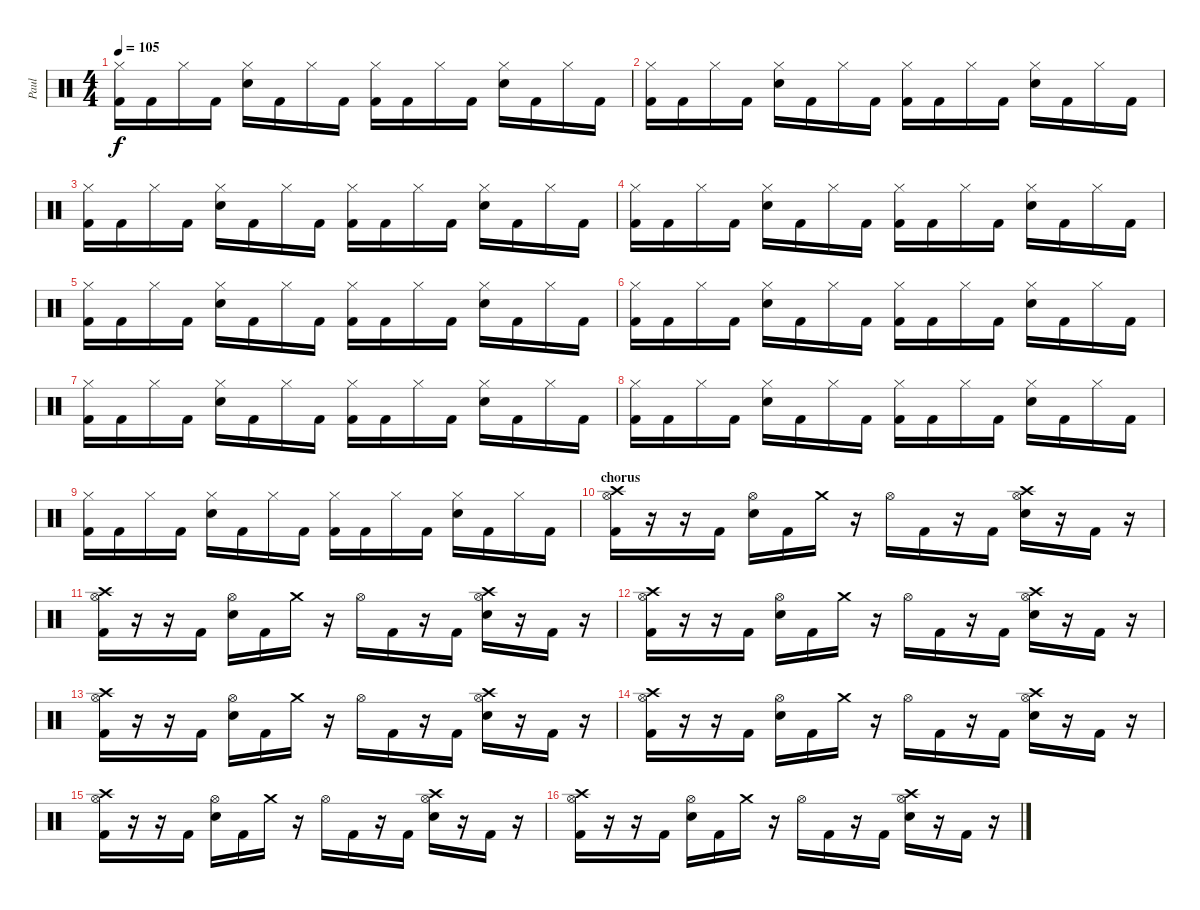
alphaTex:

\track ("Paul" "Paul") {instrument percussion}
\staff {score}
\articulation defaults
\ts (4 4)
\tempo 105
\clef neutral
\ks c
("Hi-Hat (closed)" "Kick (hit) 2").16{dy f} "Kick (hit) 2".16 "Hi-Hat (closed)".16 "Kick (hit) 2".16 ("Hi-Hat (closed)" "Snare (hit) 2").16 "Kick (hit) 2".16 "Hi-Hat (closed)".16 "Kick (hit) 2".16 ("Hi-Hat (closed)" "Kick (hit) 2").16 "Kick (hit) 2".16 "Hi-Hat (closed)".16 "Kick (hit) 2".16 ("Hi-Hat (closed)" "Snare (hit) 2").16 "Kick (hit) 2".16 "Hi-Hat (closed)".16 "Kick (hit) 2".16 |
("Hi-Hat (closed)" "Kick (hit) 2").16 "Kick (hit) 2".16 "Hi-Hat (closed)".16 "Kick (hit) 2".16 ("Hi-Hat (closed)" "Snare (hit) 2").16 "Kick (hit) 2".16 "Hi-Hat (closed)".16 "Kick (hit) 2".16 ("Hi-Hat (closed)" "Kick (hit) 2").16 "Kick (hit) 2".16 "Hi-Hat (closed)".16 "Kick (hit) 2".16 ("Hi-Hat (closed)" "Snare (hit) 2").16 "Kick (hit) 2".16 "Hi-Hat (closed)".16 "Kick (hit) 2".16 |
("Hi-Hat (closed)" "Kick (hit) 2").16 "Kick (hit) 2".16 "Hi-Hat (closed)".16 "Kick (hit) 2".16 ("Hi-Hat (closed)" "Snare (hit) 2").16 "Kick (hit) 2".16 "Hi-Hat (closed)".16 "Kick (hit) 2".16 ("Hi-Hat (closed)" "Kick (hit) 2").16 "Kick (hit) 2".16 "Hi-Hat (closed)".16 "Kick (hit) 2".16 ("Hi-Hat (closed)" "Snare (hit) 2").16 "Kick (hit) 2".16 "Hi-Hat (closed)".16 "Kick (hit) 2".16 |
("Hi-Hat (closed)" "Kick (hit) 2").16 "Kick (hit) 2".16 "Hi-Hat (closed)".16 "Kick (hit) 2".16 ("Hi-Hat (closed)" "Snare (hit) 2").16 "Kick (hit) 2".16 "Hi-Hat (closed)".16 "Kick (hit) 2".16 ("Hi-Hat (closed)" "Kick (hit) 2").16 "Kick (hit) 2".16 "Hi-Hat (closed)".16 "Kick (hit) 2".16 ("Hi-Hat (closed)" "Snare (hit) 2").16 "Kick (hit) 2".16 "Hi-Hat (closed)".16 "Kick (hit) 2".16 |
("Hi-Hat (closed)" "Kick (hit) 2").16 "Kick (hit) 2".16 "Hi-Hat (closed)".16 "Kick (hit) 2".16 ("Hi-Hat (closed)" "Snare (hit) 2").16 "Kick (hit) 2".16 "Hi-Hat (closed)".16 "Kick (hit) 2".16 ("Hi-Hat (closed)" "Kick (hit) 2").16 "Kick (hit) 2".16 "Hi-Hat (closed)".16 "Kick (hit) 2".16 ("Hi-Hat (closed)" "Snare (hit) 2").16 "Kick (hit) 2".16 "Hi-Hat (closed)".16 "Kick (hit) 2".16 |
("Hi-Hat (closed)" "Kick (hit) 2").16 "Kick (hit) 2".16 "Hi-Hat (closed)".16 "Kick (hit) 2".16 ("Hi-Hat (closed)" "Snare (hit) 2").16 "Kick (hit) 2".16 "Hi-Hat (closed)".16 "Kick (hit) 2".16 ("Hi-Hat (closed)" "Kick (hit) 2").16 "Kick (hit) 2".16 "Hi-Hat (closed)".16 "Kick (hit) 2".16 ("Hi-Hat (closed)" "Snare (hit) 2").16 "Kick (hit) 2".16 "Hi-Hat (closed)".16 "Kick (hit) 2".16 |
("Hi-Hat (closed)" "Kick (hit) 2").16 "Kick (hit) 2".16 "Hi-Hat (closed)".16 "Kick (hit) 2".16 ("Hi-Hat (closed)" "Snare (hit) 2").16 "Kick (hit) 2".16 "Hi-Hat (closed)".16 "Kick (hit) 2".16 ("Hi-Hat (closed)" "Kick (hit) 2").16 "Kick (hit) 2".16 "Hi-Hat (closed)".16 "Kick (hit) 2".16 ("Hi-Hat (closed)" "Snare (hit) 2").16 "Kick (hit) 2".16 "Hi-Hat (closed)".16 "Kick (hit) 2".16 |
("Hi-Hat (closed)" "Kick (hit) 2").16 "Kick (hit) 2".16 "Hi-Hat (closed)".16 "Kick (hit) 2".16 ("Hi-Hat (closed)" "Snare (hit) 2").16 "Kick (hit) 2".16 "Hi-Hat (closed)".16 "Kick (hit) 2".16 ("Hi-Hat (closed)" "Kick (hit) 2").16 "Kick (hit) 2".16 "Hi-Hat (closed)".16 "Kick (hit) 2".16 ("Hi-Hat (closed)" "Snare (hit) 2").16 "Kick (hit) 2".16 "Hi-Hat (closed)".16 "Kick (hit) 2".16 |
("Hi-Hat (closed)" "Kick (hit) 2").16 "Kick (hit) 2".16 "Hi-Hat (closed)".16 "Kick (hit) 2".16 ("Hi-Hat (closed)" "Snare (hit) 2").16 "Kick (hit) 2".16 "Hi-Hat (closed)".16 "Kick (hit) 2".16 ("Hi-Hat (closed)" "Kick (hit) 2").16 "Kick (hit) 2".16 "Hi-Hat (closed)".16 "Kick (hit) 2".16 ("Hi-Hat (closed)" "Snare (hit) 2").16 "Kick (hit) 2".16 "Hi-Hat (closed)".16 "Kick (hit) 2".16 |
\section ("" "chorus")
("Crash high (hit)" "Hi-Hat (open)" "Kick (hit) 2").16 r.16 r.16 "Kick (hit) 2".16 ("Hi-Hat (open)" "Snare (hit) 2").16 "Kick (hit) 2".16 "Crash medium (hit)".16 r.16 "Hi-Hat (open)".16 "Kick (hit) 2".16 r.16 "Kick (hit) 2".16 ("Crash high (hit)" "Hi-Hat (open)" "Snare (hit) 2").16 r.16 "Kick (hit) 2".16 r.16 |
("Crash high (hit)" "Hi-Hat (open)" "Kick (hit) 2").16 r.16 r.16 "Kick (hit) 2".16 ("Hi-Hat (open)" "Snare (hit) 2").16 "Kick (hit) 2".16 "Crash medium (hit)".16 r.16 "Hi-Hat (open)".16 "Kick (hit) 2".16 r.16 "Kick (hit) 2".16 ("Crash high (hit)" "Hi-Hat (open)" "Snare (hit) 2").16 r.16 "Kick (hit) 2".16 r.16 |
("Crash high (hit)" "Hi-Hat (open)" "Kick (hit) 2").16 r.16 r.16 "Kick (hit) 2".16 ("Hi-Hat (open)" "Snare (hit) 2").16 "Kick (hit) 2".16 "Crash medium (hit)".16 r.16 "Hi-Hat (open)".16 "Kick (hit) 2".16 r.16 "Kick (hit) 2".16 ("Crash high (hit)" "Hi-Hat (open)" "Snare (hit) 2").16 r.16 "Kick (hit) 2".16 r.16 |
("Crash high (hit)" "Hi-Hat (open)" "Kick (hit) 2").16 r.16 r.16 "Kick (hit) 2".16 ("Hi-Hat (open)" "Snare (hit) 2").16 "Kick (hit) 2".16 "Crash medium (hit)".16 r.16 "Hi-Hat (open)".16 "Kick (hit) 2".16 r.16 "Kick (hit) 2".16 ("Crash high (hit)" "Hi-Hat (open)" "Snare (hit) 2").16 r.16 "Kick (hit) 2".16 r.16 |
("Crash high (hit)" "Hi-Hat (open)" "Kick (hit) 2").16 r.16 r.16 "Kick (hit) 2".16 ("Hi-Hat (open)" "Snare (hit) 2").16 "Kick (hit) 2".16 "Crash medium (hit)".16 r.16 "Hi-Hat (open)".16 "Kick (hit) 2".16 r.16 "Kick (hit) 2".16 ("Crash high (hit)" "Hi-Hat (open)" "Snare (hit) 2").16 r.16 "Kick (hit) 2".16 r.16 |
("Crash high (hit)" "Hi-Hat (open)" "Kick (hit) 2").16 r.16 r.16 "Kick (hit) 2".16 ("Hi-Hat (open)" "Snare (hit) 2").16 "Kick (hit) 2".16 "Crash medium (hit)".16 r.16 "Hi-Hat (open)".16 "Kick (hit) 2".16 r.16 "Kick (hit) 2".16 ("Crash high (hit)" "Hi-Hat (open)" "Snare (hit) 2").16 r.16 "Kick (hit) 2".16 r.16 |
("Crash high (hit)" "Hi-Hat (open)" "Kick (hit) 2").16 r.16 r.16 "Kick (hit) 2".16 ("Hi-Hat (open)" "Snare (hit) 2").16 "Kick (hit) 2".16 "Crash medium (hit)".16 r.16 "Hi-Hat (open)".16 "Kick (hit) 2".16 r.16 "Kick (hit) 2".16 ("Crash high (hit)" "Hi-Hat (open)" "Snare (hit) 2").16 r.16 "Kick (hit) 2".16 r.16
